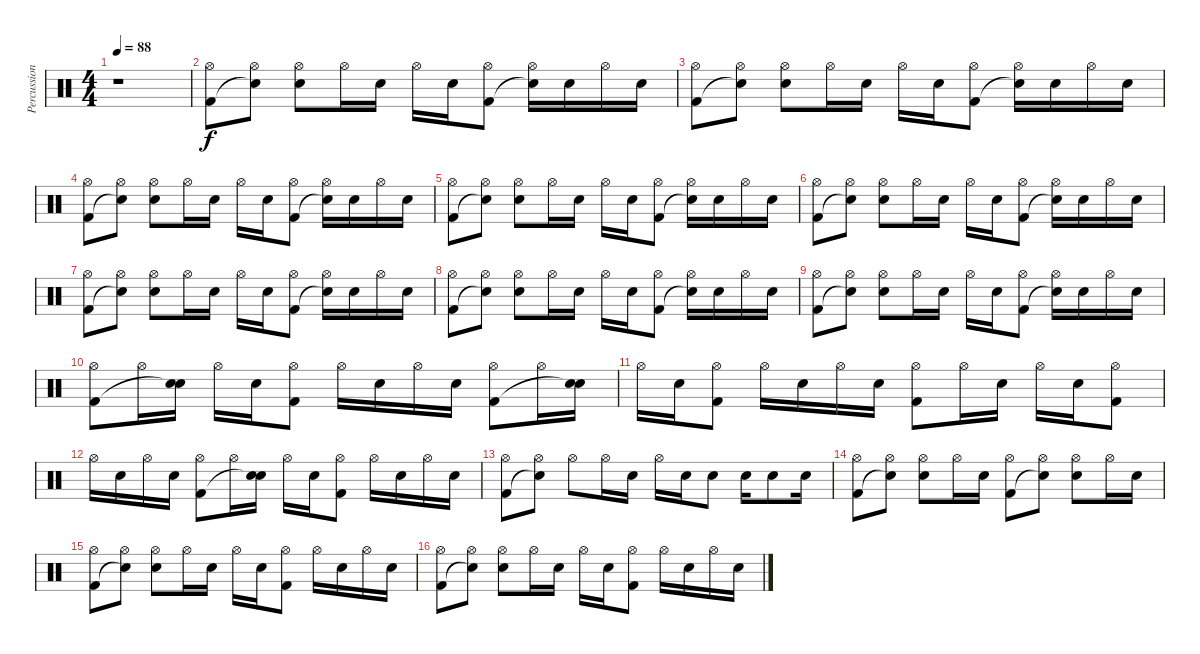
\track ("Percussion" "Percussion") {instrument percussion}
\staff {score}
\articulation defaults
\ts (4 4)
\tempo 88
\clef neutral
\ks c
r.1{dy f} |
("Hi-Hat (open)" "Kick (hit) 2").8 ("Hi-Hat (open)" "Snare (hit)"{t}).8 ("Hi-Hat (open)" "Snare (hit) 2").8 "Hi-Hat (open)".16 "Snare (hit) 2".16 "Hi-Hat (open)".16 "Snare (hit) 2".16 ("Hi-Hat (open)" "Kick (hit) 2").8 ("Hi-Hat (open)" "Snare (hit)"{t}).16 "Snare (hit) 2".16 "Hi-Hat (open)".16 "Snare (hit) 2".16 |
("Hi-Hat (open)" "Kick (hit) 2").8 ("Hi-Hat (open)" "Snare (hit)"{t}).8 ("Hi-Hat (open)" "Snare (hit) 2").8 "Hi-Hat (open)".16 "Snare (hit) 2".16 "Hi-Hat (open)".16 "Snare (hit) 2".16 ("Hi-Hat (open)" "Kick (hit) 2").8 ("Hi-Hat (open)" "Snare (hit)"{t}).16 "Snare (hit) 2".16 "Hi-Hat (open)".16 "Snare (hit) 2".16 |
("Hi-Hat (open)" "Kick (hit) 2").8 ("Hi-Hat (open)" "Snare (hit)"{t}).8 ("Hi-Hat (open)" "Snare (hit) 2").8 "Hi-Hat (open)".16 "Snare (hit) 2".16 "Hi-Hat (open)".16 "Snare (hit) 2".16 ("Hi-Hat (open)" "Kick (hit) 2").8 ("Hi-Hat (open)" "Snare (hit)"{t}).16 "Snare (hit) 2".16 "Hi-Hat (open)".16 "Snare (hit) 2".16 |
("Hi-Hat (open)" "Kick (hit) 2").8 ("Hi-Hat (open)" "Snare (hit)"{t}).8 ("Hi-Hat (open)" "Snare (hit) 2").8 "Hi-Hat (open)".16 "Snare (hit) 2".16 "Hi-Hat (open)".16 "Snare (hit) 2".16 ("Hi-Hat (open)" "Kick (hit) 2").8 ("Hi-Hat (open)" "Snare (hit)"{t}).16 "Snare (hit) 2".16 "Hi-Hat (open)".16 "Snare (hit) 2".16 |
("Hi-Hat (open)" "Kick (hit) 2").8 ("Hi-Hat (open)" "Snare (hit)"{t}).8 ("Hi-Hat (open)" "Snare (hit) 2").8 "Hi-Hat (open)".16 "Snare (hit) 2".16 "Hi-Hat (open)".16 "Snare (hit) 2".16 ("Hi-Hat (open)" "Kick (hit) 2").8 ("Hi-Hat (open)" "Snare (hit)"{t}).16 "Snare (hit) 2".16 "Hi-Hat (open)".16 "Snare (hit) 2".16 |
("Hi-Hat (open)" "Kick (hit) 2").8 ("Hi-Hat (open)" "Snare (hit)"{t}).8 ("Hi-Hat (open)" "Snare (hit) 2").8 "Hi-Hat (open)".16 "Snare (hit) 2".16 "Hi-Hat (open)".16 "Snare (hit) 2".16 ("Hi-Hat (open)" "Kick (hit) 2").8 ("Hi-Hat (open)" "Snare (hit)"{t}).16 "Snare (hit) 2".16 "Hi-Hat (open)".16 "Snare (hit) 2".16 |
("Hi-Hat (open)" "Kick (hit) 2").8 ("Hi-Hat (open)" "Snare (hit)"{t}).8 ("Hi-Hat (open)" "Snare (hit) 2").8 "Hi-Hat (open)".16 "Snare (hit) 2".16 "Hi-Hat (open)".16 "Snare (hit) 2".16 ("Hi-Hat (open)" "Kick (hit) 2").8 ("Hi-Hat (open)" "Snare (hit)"{t}).16 "Snare (hit) 2".16 "Hi-Hat (open)".16 "Snare (hit) 2".16 |
("Hi-Hat (open)" "Kick (hit) 2").8 ("Hi-Hat (open)" "Snare (hit)"{t}).8 ("Hi-Hat (open)" "Snare (hit) 2").8 "Hi-Hat (open)".16 "Snare (hit) 2".16 "Hi-Hat (open)".16 "Snare (hit) 2".16 ("Hi-Hat (open)" "Kick (hit) 2").8 ("Hi-Hat (open)" "Snare (hit)"{t}).16 "Snare (hit) 2".16 "Hi-Hat (open)".16 "Snare (hit) 2".16 |
("Hi-Hat (open)" "Kick (hit) 2").8 "Hi-Hat (open)".16 ("Snare (hit) 2" "Snare (hit)"{t}).16 "Hi-Hat (open)".16 "Snare (hit) 2".16 ("Hi-Hat (open)" "Kick (hit) 2").8 "Hi-Hat (open)".16 "Snare (hit) 2".16 "Hi-Hat (open)".16 "Snare (hit) 2".16 ("Hi-Hat (open)" "Kick (hit) 2").8 "Hi-Hat (open)".16 ("Snare (hit) 2" "Snare (hit)"{t}).16 |
"Hi-Hat (open)".16 "Snare (hit) 2".16 ("Hi-Hat (open)" "Kick (hit) 2").8 "Hi-Hat (open)".16 "Snare (hit) 2".16 "Hi-Hat (open)".16 "Snare (hit) 2".16 ("Hi-Hat (open)" "Kick (hit) 2").8 "Hi-Hat (open)".16 "Snare (hit) 2".16 "Hi-Hat (open)".16 "Snare (hit) 2".16 ("Hi-Hat (open)" "Kick (hit) 2").8 |
"Hi-Hat (open)".16 "Snare (hit) 2".16 "Hi-Hat (open)".16 "Snare (hit) 2".16 ("Hi-Hat (open)" "Kick (hit) 2").8 "Hi-Hat (open)".16 ("Snare (hit) 2" "Snare (hit)"{t}).16 "Hi-Hat (open)".16 "Snare (hit) 2".16 ("Hi-Hat (open)" "Kick (hit) 2").8 "Hi-Hat (open)".16 "Snare (hit) 2".16 "Hi-Hat (open)".16 "Snare (hit) 2".16 |
("Hi-Hat (open)" "Kick (hit) 2").8 ("Hi-Hat (open)" "Snare (hit)"{t}).8 "Hi-Hat (open)".8 "Hi-Hat (open)".16 "Snare (hit) 2".16 "Hi-Hat (open)".16 "Snare (hit) 2".16 "Snare (hit) 2".8 "Snare (hit) 2".16 "Snare (hit) 2".8 "Snare (hit) 2".16 |
("Hi-Hat (open)" "Kick (hit) 2").8 ("Hi-Hat (open)" "Snare (hit)"{t}).8 ("Hi-Hat (open)" "Snare (hit) 2").8 "Hi-Hat (open)".16 "Snare (hit) 2".16 ("Hi-Hat (open)" "Kick (hit) 2").8 ("Hi-Hat (open)" "Snare (hit)"{t}).8 ("Hi-Hat (open)" "Snare (hit) 2").8 "Hi-Hat (open)".16 "Snare (hit) 2".16 |
("Hi-Hat (open)" "Kick (hit) 2").8 ("Hi-Hat (open)" "Snare (hit)"{t}).8 ("Hi-Hat (open)" "Snare (hit) 2").8 "Hi-Hat (open)".16 "Snare (hit) 2".16 "Hi-Hat (open)".16 "Snare (hit) 2".16 ("Hi-Hat (open)" "Kick (hit) 2").8 "Hi-Hat (open)".16 "Snare (hit) 2".16 "Hi-Hat (open)".16 "Snare (hit) 2".16 |
("Hi-Hat (open)" "Kick (hit) 2").8 ("Hi-Hat (open)" "Snare (hit)"{t}).8 ("Hi-Hat (open)" "Snare (hit) 2").8 "Hi-Hat (open)".16 "Snare (hit) 2".16 "Hi-Hat (open)".16 "Snare (hit) 2".16 ("Hi-Hat (open)" "Kick (hit) 2").8 "Hi-Hat (open)".16 "Snare (hit) 2".16 "Hi-Hat (open)".16 "Snare (hit) 2".16
